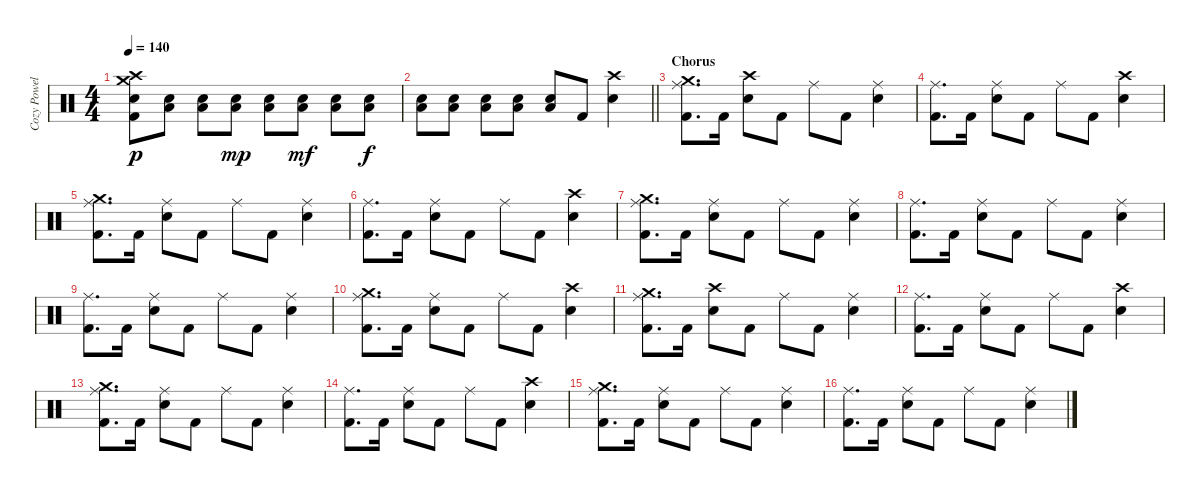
\track ("Cozy Powell" "Cozy Powel") {instrument percussion}
\staff {score}
\articulation defaults
\ts (4 4)
\tempo 140
\clef neutral
\ks c
("Crash medium (hit)" "Crash high (hit)" "Snare (hit) 2" "Kick (hit) 2").8{dy p} ("Snare (hit) 2" "Low Tom (hit)").8 ("Snare (hit) 2" "Low Tom (hit)").8 ("Snare (hit) 2" "Low Tom (hit)").8{dy mp} ("Snare (hit) 2" "Low Tom (hit)").8 ("Snare (hit) 2" "Low Tom (hit)").8{dy mf} ("Snare (hit) 2" "Low Tom (hit)").8 ("Snare (hit) 2" "Low Tom (hit)").8{dy f} |
\barLineRight lightlight
("Snare (hit) 2" "Low Tom (hit)").8 ("Snare (hit) 2" "Low Tom (hit)").8 ("Snare (hit) 2" "Low Tom (hit)").8 ("Snare (hit) 2" "Low Tom (hit)").8 ("Snare (hit) 2" "Low Tom (hit)").8 "Kick (hit) 2".8 ("Crash high (hit)" "Snare (hit) 2").4 |
\section ("" "Chorus")
("Crash medium (hit)" "Ride (middle)" "Kick (hit) 2").8{d} "Kick (hit) 2".16 ("Crash high (hit)" "Snare (hit) 2").8 "Kick (hit) 2".8 "Ride (middle)".8 "Kick (hit) 2".8 ("Ride (middle)" "Snare (hit) 2").4 |
("Ride (middle)" "Kick (hit) 2").8{d} "Kick (hit) 2".16 ("Ride (middle)" "Snare (hit) 2").8 "Kick (hit) 2".8 "Ride (middle)".8 "Kick (hit) 2".8 ("Crash high (hit)" "Snare (hit) 2").4 |
("Crash medium (hit)" "Ride (middle)" "Kick (hit) 2").8{d} "Kick (hit) 2".16 ("Ride (middle)" "Snare (hit) 2").8 "Kick (hit) 2".8 "Ride (middle)".8 "Kick (hit) 2".8 ("Ride (middle)" "Snare (hit) 2").4 |
("Ride (middle)" "Kick (hit) 2").8{d} "Kick (hit) 2".16 ("Ride (middle)" "Snare (hit) 2").8 "Kick (hit) 2".8 "Ride (middle)".8 "Kick (hit) 2".8 ("Crash high (hit)" "Snare (hit) 2").4 |
("Crash medium (hit)" "Ride (middle)" "Kick (hit) 2").8{d} "Kick (hit) 2".16 ("Ride (middle)" "Snare (hit) 2").8 "Kick (hit) 2".8 "Ride (middle)".8 "Kick (hit) 2".8 ("Ride (middle)" "Snare (hit) 2").4 |
("Ride (middle)" "Kick (hit) 2").8{d} "Kick (hit) 2".16 ("Ride (middle)" "Snare (hit) 2").8 "Kick (hit) 2".8 "Ride (middle)".8 "Kick (hit) 2".8 ("Ride (middle)" "Snare (hit) 2").4 |
("Ride (middle)" "Kick (hit) 2").8{d} "Kick (hit) 2".16 ("Ride (middle)" "Snare (hit) 2").8 "Kick (hit) 2".8 "Ride (middle)".8 "Kick (hit) 2".8 ("Ride (middle)" "Snare (hit) 2").4 |
("Crash medium (hit)" "Ride (middle)" "Kick (hit) 2").8{d} "Kick (hit) 2".16 ("Ride (middle)" "Snare (hit) 2").8 "Kick (hit) 2".8 "Ride (middle)".8 "Kick (hit) 2".8 ("Crash high (hit)" "Snare (hit) 2").4 |
("Crash medium (hit)" "Ride (middle)" "Kick (hit) 2").8{d} "Kick (hit) 2".16 ("Crash high (hit)" "Snare (hit) 2").8 "Kick (hit) 2".8 "Ride (middle)".8 "Kick (hit) 2".8 ("Ride (middle)" "Snare (hit) 2").4 |
("Ride (middle)" "Kick (hit) 2").8{d} "Kick (hit) 2".16 ("Ride (middle)" "Snare (hit) 2").8 "Kick (hit) 2".8 "Ride (middle)".8 "Kick (hit) 2".8 ("Crash high (hit)" "Snare (hit) 2").4 |
("Crash medium (hit)" "Ride (middle)" "Kick (hit) 2").8{d} "Kick (hit) 2".16 ("Ride (middle)" "Snare (hit) 2").8 "Kick (hit) 2".8 "Ride (middle)".8 "Kick (hit) 2".8 ("Ride (middle)" "Snare (hit) 2").4 |
("Ride (middle)" "Kick (hit) 2").8{d} "Kick (hit) 2".16 ("Ride (middle)" "Snare (hit) 2").8 "Kick (hit) 2".8 "Ride (middle)".8 "Kick (hit) 2".8 ("Crash high (hit)" "Snare (hit) 2").4 |
("Crash medium (hit)" "Ride (middle)" "Kick (hit) 2").8{d} "Kick (hit) 2".16 ("Ride (middle)" "Snare (hit) 2").8 "Kick (hit) 2".8 "Ride (middle)".8 "Kick (hit) 2".8 ("Ride (middle)" "Snare (hit) 2").4 |
("Ride (middle)" "Kick (hit) 2").8{d} "Kick (hit) 2".16 ("Ride (middle)" "Snare (hit) 2").8 "Kick (hit) 2".8 "Ride (middle)".8 "Kick (hit) 2".8 ("Ride (middle)" "Snare (hit) 2").4
